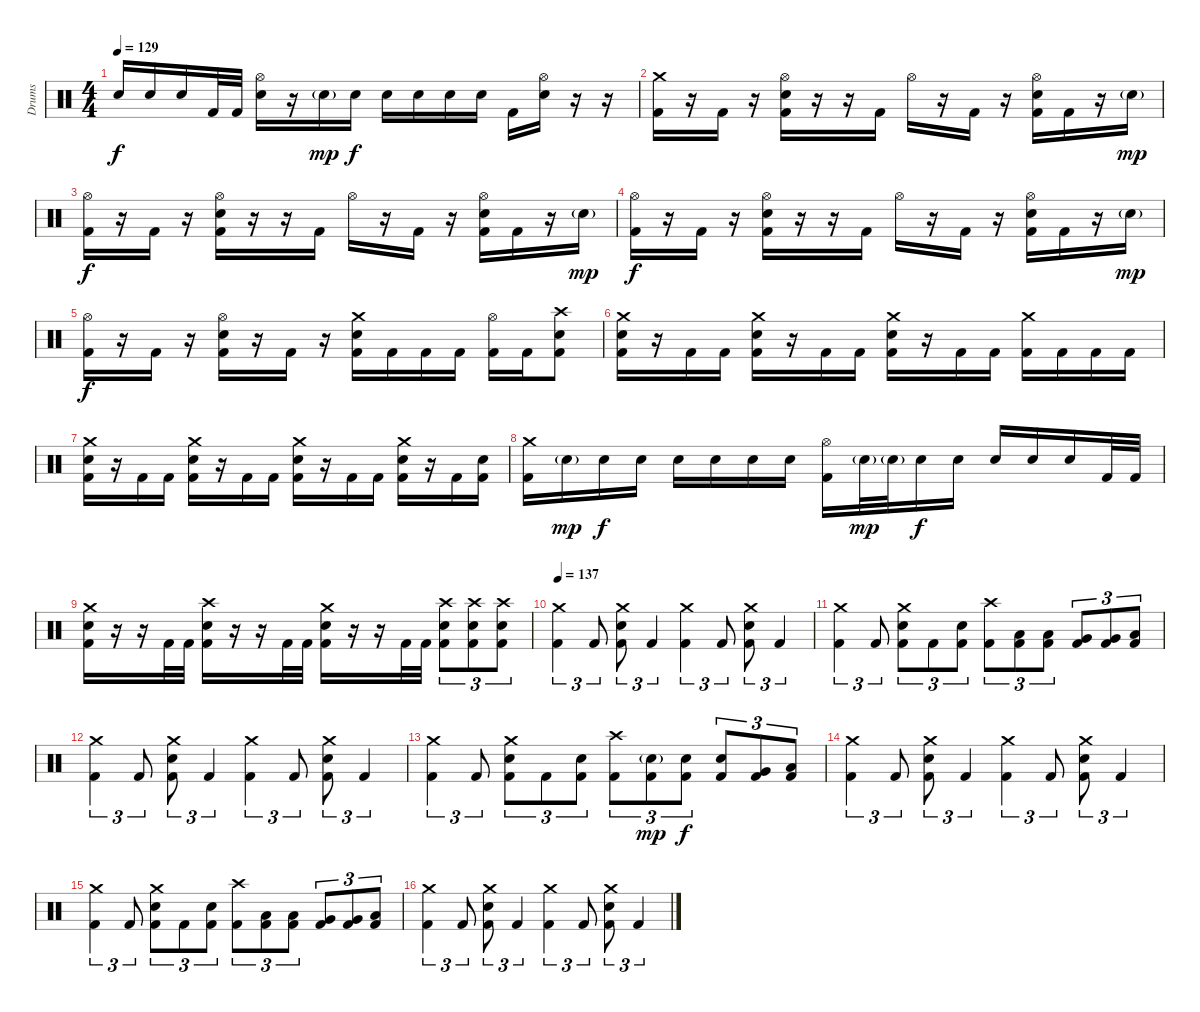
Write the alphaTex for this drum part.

\track ("Drums" "Drums") {instrument percussion}
\staff {score}
\articulation defaults
\ts (4 4)
\tempo 129
\clef neutral
\ks c "Electric Snare (hit)".16{dy f} "Electric Snare (hit)".16 "Electric Snare (hit)".16 "Kick (hit) 2".32 "Kick (hit) 2".32
("Hi-Hat (open)" "Electric Snare (hit)").16 r.16 "Electric Snare (hit)"{g}.16{dy mp} "Electric Snare (hit)".16{dy f} "Electric Snare (hit)".16 "Electric Snare (hit)".16 "Electric Snare (hit)".16 "Electric Snare (hit)".16 "Kick (hit) 2".16 ("Hi-Hat (open)" "Electric Snare (hit)").16 r.16 r.16 |
\section ("" "")
("Crash medium (hit)" "Kick (hit) 2").16 r.16 "Kick (hit) 2".16 r.16 ("Hi-Hat (open)" "Electric Snare (hit)" "Kick (hit) 2").16 r.16 r.16 "Kick (hit) 2".16 "Hi-Hat (open)".16 r.16 "Kick (hit) 2".16 r.16 ("Hi-Hat (open)" "Electric Snare (hit)" "Kick (hit) 2").16 "Kick (hit) 2".16 r.16 "Electric Snare (hit)"{g}.16{dy mp} |
("Hi-Hat (open)" "Kick (hit) 2").16{dy f} r.16 "Kick (hit) 2".16 r.16 ("Hi-Hat (open)" "Electric Snare (hit)" "Kick (hit) 2").16 r.16 r.16 "Kick (hit) 2".16 "Hi-Hat (open)".16 r.16 "Kick (hit) 2".16 r.16 ("Hi-Hat (open)" "Electric Snare (hit)" "Kick (hit) 2").16 "Kick (hit) 2".16 r.16 "Electric Snare (hit)"{g}.16{dy mp} |
("Hi-Hat (open)" "Kick (hit) 2").16{dy f} r.16 "Kick (hit) 2".16 r.16 ("Hi-Hat (open)" "Electric Snare (hit)" "Kick (hit) 2").16 r.16 r.16 "Kick (hit) 2".16 "Hi-Hat (open)".16 r.16 "Kick (hit) 2".16 r.16 ("Hi-Hat (open)" "Electric Snare (hit)" "Kick (hit) 2").16 "Kick (hit) 2".16 r.16 "Electric Snare (hit)"{g}.16{dy mp} |
("Hi-Hat (open)" "Kick (hit) 2").16{dy f} r.16 "Kick (hit) 2".16 r.16 ("Hi-Hat (open)" "Electric Snare (hit)" "Kick (hit) 2").16 r.16 "Kick (hit) 2".16 r.16 ("Crash medium (hit)" "Electric Snare (hit)" "Kick (hit) 2").16 "Kick (hit) 2".16 "Kick (hit) 2".16 "Kick (hit) 2".16 ("Hi-Hat (open)" "Kick (hit) 2").16 "Kick (hit) 2".16 ("Crash high (hit)" "Electric Snare (hit)" "Kick (hit) 2").8 |
("Crash medium (hit)" "Electric Snare (hit)" "Kick (hit) 2").16 r.16 "Kick (hit) 2".16 "Kick (hit) 2".16 ("Crash medium (hit)" "Electric Snare (hit)" "Kick (hit) 2").16 r.16 "Kick (hit) 2".16 "Kick (hit) 2".16 ("Crash medium (hit)" "Electric Snare (hit)" "Kick (hit) 2").16 r.16 "Kick (hit) 2".16 "Kick (hit) 2".16 ("Crash medium (hit)" "Kick (hit) 2").16 "Kick (hit) 2".16 "Kick (hit) 2".16 "Kick (hit) 2".16 |
("Crash medium (hit)" "Electric Snare (hit)" "Kick (hit) 2").16 r.16 "Kick (hit) 2".16 "Kick (hit) 2".16 ("Crash medium (hit)" "Electric Snare (hit)" "Kick (hit) 2").16 r.16 "Kick (hit) 2".16 "Kick (hit) 2".16 ("Crash medium (hit)" "Electric Snare (hit)" "Kick (hit) 2").16 r.16 "Kick (hit) 2".16 "Kick (hit) 2".16 ("Crash medium (hit)" "Electric Snare (hit)" "Kick (hit) 2").16 r.16 "Kick (hit) 2".16 ("Electric Snare (hit)" "Kick (hit) 2").16 |
("Crash medium (hit)" "Kick (hit) 2").16 "Electric Snare (hit)"{g}.16{dy mp} "Electric Snare (hit)".16{dy f} "Electric Snare (hit)".16 "Electric Snare (hit)".16 "Electric Snare (hit)".16 "Electric Snare (hit)".16 "Electric Snare (hit)".16 ("Hi-Hat (open)" "Kick (hit) 2").16 "Electric Snare (hit)"{g}.32{dy mp} "Electric Snare (hit)"{g}.32 "Electric Snare (hit)".16{dy f} "Electric Snare (hit)".16 "Electric Snare (hit)".16 "Electric Snare (hit)".16 "Electric Snare (hit)".16 "Kick (hit) 2".32 "Kick (hit) 2".32 |
("Crash medium (hit)" "Electric Snare (hit)" "Kick (hit) 2").16 r.16 r.16 "Kick (hit) 2".32 "Kick (hit) 2".32 ("Crash high (hit)" "Electric Snare (hit)" "Kick (hit) 2").16 r.16 r.16 "Kick (hit) 2".32 "Kick (hit) 2".32 ("Crash medium (hit)" "Electric Snare (hit)" "Kick (hit) 2").16 r.16 r.16 "Kick (hit) 2".32 "Kick (hit) 2".32 ("Crash high (hit)" "Electric Snare (hit)" "Kick (hit) 2").8{tu (3 2)} ("Crash high (hit)" "Electric Snare (hit)" "Kick (hit) 2").8{tu (3 2)} ("Crash high (hit)" "Electric Snare (hit)" "Kick (hit) 2").8{tu (3 2)} |
\section ("" "")
\tempo 137
("Crash medium (hit)" "Kick (hit) 2").4{tu (3 2)} "Kick (hit) 2".8{tu (3 2)} ("Crash medium (hit)" "Electric Snare (hit)" "Kick (hit) 2").8{tu (3 2)} "Kick (hit) 2".4{tu (3 2)} ("Crash medium (hit)" "Kick (hit) 2").4{tu (3 2)} "Kick (hit) 2".8{tu (3 2)} ("Crash medium (hit)" "Electric Snare (hit)" "Kick (hit) 2").8{tu (3 2)} "Kick (hit) 2".4{tu (3 2)} |
("Crash medium (hit)" "Kick (hit) 2").4{tu (3 2)} "Kick (hit) 2".8{tu (3 2)} ("Crash medium (hit)" "Electric Snare (hit)" "Kick (hit) 2").8{tu (3 2)} "Kick (hit) 2".8{tu (3 2)} ("Electric Snare (hit)" "Kick (hit) 2").8{tu (3 2)} ("Crash high (hit)" "Kick (hit) 2").8{tu (3 2)} ("Low Tom (hit)" "Kick (hit) 2").8{tu (3 2)} ("Low Tom (hit)" "Kick (hit) 2").8{tu (3 2)} ("Very Low Tom (hit)" "Kick (hit) 2").8{tu (3 2)} ("Very Low Tom (hit)" "Kick (hit) 2").8{tu (3 2)} ("Low Floor Tom (hit)" "Kick (hit) 2").8{tu (3 2)} |
("Crash medium (hit)" "Kick (hit) 2").4{tu (3 2)} "Kick (hit) 2".8{tu (3 2)} ("Crash medium (hit)" "Electric Snare (hit)" "Kick (hit) 2").8{tu (3 2)} "Kick (hit) 2".4{tu (3 2)} ("Crash medium (hit)" "Kick (hit) 2").4{tu (3 2)} "Kick (hit) 2".8{tu (3 2)} ("Crash medium (hit)" "Electric Snare (hit)" "Kick (hit) 2").8{tu (3 2)} "Kick (hit) 2".4{tu (3 2)} |
("Crash medium (hit)" "Kick (hit) 2").4{tu (3 2)} "Kick (hit) 2".8{tu (3 2)} ("Crash medium (hit)" "Electric Snare (hit)" "Kick (hit) 2").8{tu (3 2)} "Kick (hit) 2".8{tu (3 2)} ("Electric Snare (hit)" "Kick (hit) 2").8{tu (3 2)} ("Crash high (hit)" "Kick (hit) 2").8{tu (3 2)} ("Electric Snare (hit)"{g} "Kick (hit) 2").8{tu (3 2) dy mp} ("Electric Snare (hit)" "Kick (hit) 2").8{tu (3 2) dy f} ("Electric Snare (hit)" "Kick (hit) 2").8{tu (3 2)} ("Very Low Tom (hit)" "Kick (hit) 2").8{tu (3 2)} ("Low Floor Tom (hit)" "Kick (hit) 2").8{tu (3 2)} |
("Crash medium (hit)" "Kick (hit) 2").4{tu (3 2)} "Kick (hit) 2".8{tu (3 2)} ("Crash medium (hit)" "Electric Snare (hit)" "Kick (hit) 2").8{tu (3 2)} "Kick (hit) 2".4{tu (3 2)} ("Crash medium (hit)" "Kick (hit) 2").4{tu (3 2)} "Kick (hit) 2".8{tu (3 2)} ("Crash medium (hit)" "Electric Snare (hit)" "Kick (hit) 2").8{tu (3 2)} "Kick (hit) 2".4{tu (3 2)} |
("Crash medium (hit)" "Kick (hit) 2").4{tu (3 2)} "Kick (hit) 2".8{tu (3 2)} ("Crash medium (hit)" "Electric Snare (hit)" "Kick (hit) 2").8{tu (3 2)} "Kick (hit) 2".8{tu (3 2)} ("Electric Snare (hit)" "Kick (hit) 2").8{tu (3 2)} ("Crash high (hit)" "Kick (hit) 2").8{tu (3 2)} ("Low Tom (hit)" "Kick (hit) 2").8{tu (3 2)} ("Low Tom (hit)" "Kick (hit) 2").8{tu (3 2)} ("Very Low Tom (hit)" "Kick (hit) 2").8{tu (3 2)} ("Very Low Tom (hit)" "Kick (hit) 2").8{tu (3 2)} ("Low Floor Tom (hit)" "Kick (hit) 2").8{tu (3 2)} |
("Crash medium (hit)" "Kick (hit) 2").4{tu (3 2)} "Kick (hit) 2".8{tu (3 2)} ("Crash medium (hit)" "Electric Snare (hit)" "Kick (hit) 2").8{tu (3 2)} "Kick (hit) 2".4{tu (3 2)} ("Crash medium (hit)" "Kick (hit) 2").4{tu (3 2)} "Kick (hit) 2".8{tu (3 2)} ("Crash medium (hit)" "Electric Snare (hit)" "Kick (hit) 2").8{tu (3 2)} "Kick (hit) 2".4{tu (3 2)}
